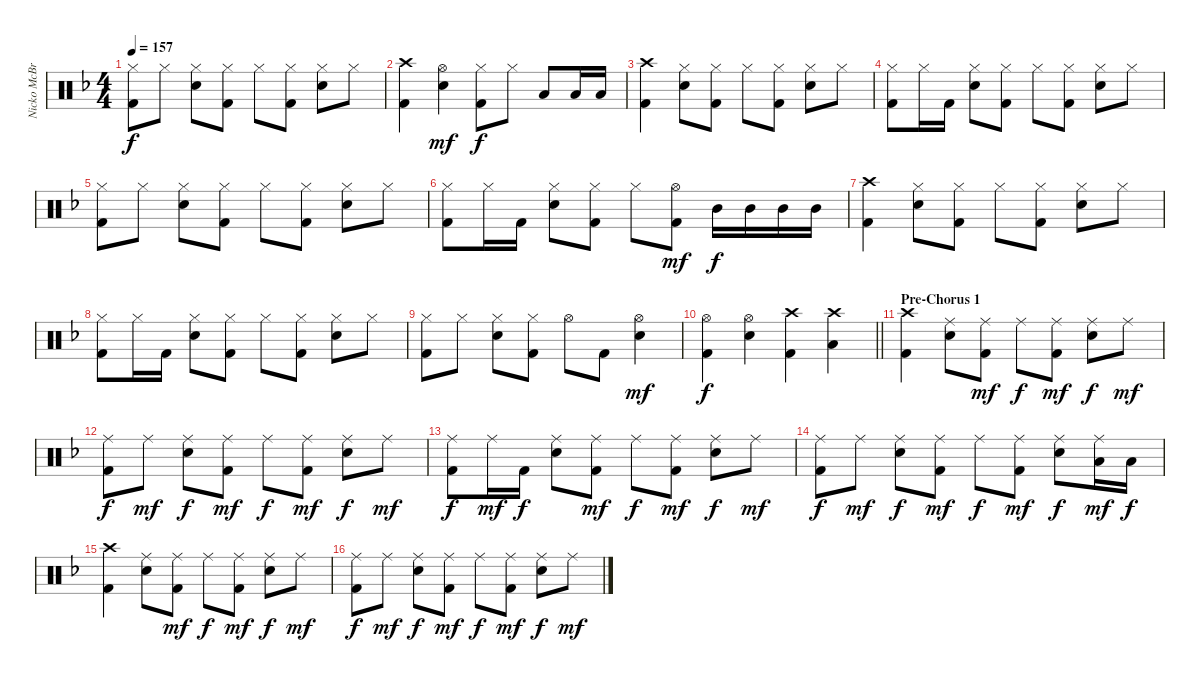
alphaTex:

\track ("Nicko McBrain" "Nicko McBr") {instrument percussion}
\staff {score}
\articulation defaults
\ts (4 4)
\tempo 157
\clef neutral
\ks f
("Hi-Hat (closed)" "Kick (hit) 2").8{dy f} "Hi-Hat (closed)".8 ("Hi-Hat (closed)" "Electric Snare (hit)").8 ("Hi-Hat (closed)" "Kick (hit) 2").8 "Hi-Hat (closed)".8 ("Hi-Hat (closed)" "Kick (hit) 2").8 ("Hi-Hat (closed)" "Electric Snare (hit)").8 "Hi-Hat (closed)".8 |
("Crash high (hit)" "Kick (hit) 2").4 ("Hi-Hat (open)" "Electric Snare (hit)").4{dy mf} ("Hi-Hat (closed)" "Kick (hit) 2").8{dy f} "Hi-Hat (closed)".8 "Low Tom (hit)".8 "Low Tom (hit)".16 "Low Tom (hit)".16 |
("Crash high (hit)" "Kick (hit) 2").4 ("Hi-Hat (closed)" "Electric Snare (hit)").8 ("Hi-Hat (closed)" "Kick (hit) 2").8 "Hi-Hat (closed)".8 ("Hi-Hat (closed)" "Kick (hit) 2").8 ("Hi-Hat (closed)" "Electric Snare (hit)").8 "Hi-Hat (closed)".8 |
("Hi-Hat (closed)" "Kick (hit) 2").8 "Hi-Hat (closed)".16 "Kick (hit) 2".16 ("Hi-Hat (closed)" "Electric Snare (hit)").8 ("Hi-Hat (closed)" "Kick (hit) 2").8 "Hi-Hat (closed)".8 ("Hi-Hat (closed)" "Kick (hit) 2").8 ("Hi-Hat (closed)" "Electric Snare (hit)").8 "Hi-Hat (closed)".8 |
("Hi-Hat (closed)" "Kick (hit) 2").8 "Hi-Hat (closed)".8 ("Hi-Hat (closed)" "Electric Snare (hit)").8 ("Hi-Hat (closed)" "Kick (hit) 2").8 "Hi-Hat (closed)".8 ("Hi-Hat (closed)" "Kick (hit) 2").8 ("Hi-Hat (closed)" "Electric Snare (hit)").8 "Hi-Hat (closed)".8 |
("Hi-Hat (closed)" "Kick (hit) 2").8 "Hi-Hat (closed)".16 "Kick (hit) 2".16 ("Hi-Hat (closed)" "Electric Snare (hit)").8 ("Hi-Hat (closed)" "Kick (hit) 2").8 "Hi-Hat (closed)".8 ("Hi-Hat (open)" "Kick (hit) 2").8{dy mf} "Mid Tom (hit)".16{dy f} "Mid Tom (hit)".16 "Mid Tom (hit)".16 "Mid Tom (hit)".16 |
("Crash high (hit)" "Kick (hit) 2").4 ("Hi-Hat (closed)" "Electric Snare (hit)").8 ("Hi-Hat (closed)" "Kick (hit) 2").8 "Hi-Hat (closed)".8 ("Hi-Hat (closed)" "Kick (hit) 2").8 ("Hi-Hat (closed)" "Electric Snare (hit)").8 "Hi-Hat (closed)".8 |
("Hi-Hat (closed)" "Kick (hit) 2").8 "Hi-Hat (closed)".16 "Kick (hit) 2".16 ("Hi-Hat (closed)" "Electric Snare (hit)").8 ("Hi-Hat (closed)" "Kick (hit) 2").8 "Hi-Hat (closed)".8 ("Hi-Hat (closed)" "Kick (hit) 2").8 ("Hi-Hat (closed)" "Electric Snare (hit)").8 "Hi-Hat (closed)".8 |
("Hi-Hat (closed)" "Kick (hit) 2").8 "Hi-Hat (closed)".8 ("Hi-Hat (closed)" "Electric Snare (hit)").8 ("Hi-Hat (closed)" "Kick (hit) 2").8 "Hi-Hat (open)".8 "Kick (hit) 2".8 ("Hi-Hat (open)" "Electric Snare (hit)").4{dy mf} |
\barLineRight lightlight
("Hi-Hat (open)" "Kick (hit) 2").4{dy f} ("Hi-Hat (open)" "Electric Snare (hit)").4 ("Crash high (hit)" "Kick (hit) 2").4 ("Crash high (hit)" "Low Tom (hit)").4 |
\section ("" "Pre-Chorus 1")
("Crash high (hit)" "Kick (hit) 2").4 ("Ride (middle)" "Electric Snare (hit)").8 ("Ride (middle)" "Kick (hit) 2").8{dy mf} "Ride (middle)".8{dy f} ("Ride (middle)" "Kick (hit) 2").8{dy mf} ("Ride (middle)" "Electric Snare (hit)").8{dy f} "Ride (middle)".8{dy mf} |
("Ride (middle)" "Kick (hit) 2").8{dy f} "Ride (middle)".8{dy mf} ("Ride (middle)" "Electric Snare (hit)").8{dy f} ("Ride (middle)" "Kick (hit) 2").8{dy mf} "Ride (middle)".8{dy f} ("Ride (middle)" "Kick (hit) 2").8{dy mf} ("Ride (middle)" "Electric Snare (hit)").8{dy f} "Ride (middle)".8{dy mf} |
("Ride (middle)" "Kick (hit) 2").8{dy f} "Ride (middle)".16{dy mf} "Kick (hit) 2".16{dy f} ("Ride (middle)" "Electric Snare (hit)").8 ("Ride (middle)" "Kick (hit) 2").8{dy mf} "Ride (middle)".8{dy f} ("Ride (middle)" "Kick (hit) 2").8{dy mf} ("Ride (middle)" "Electric Snare (hit)").8{dy f} "Ride (middle)".8{dy mf} |
("Ride (middle)" "Kick (hit) 2").8{dy f} "Ride (middle)".8{dy mf} ("Ride (middle)" "Electric Snare (hit)").8{dy f} ("Ride (middle)" "Kick (hit) 2").8{dy mf} "Ride (middle)".8{dy f} ("Ride (middle)" "Kick (hit) 2").8{dy mf} ("Ride (middle)" "Electric Snare (hit)").8{dy f} ("Ride (middle)" "Low Tom (hit)").16{dy mf} "Low Tom (hit)".16{dy f} |
("Crash high (hit)" "Kick (hit) 2").4 ("Ride (middle)" "Electric Snare (hit)").8 ("Ride (middle)" "Kick (hit) 2").8{dy mf} "Ride (middle)".8{dy f} ("Ride (middle)" "Kick (hit) 2").8{dy mf} ("Ride (middle)" "Electric Snare (hit)").8{dy f} "Ride (middle)".8{dy mf} |
("Ride (middle)" "Kick (hit) 2").8{dy f} "Ride (middle)".8{dy mf} ("Ride (middle)" "Electric Snare (hit)").8{dy f} ("Ride (middle)" "Kick (hit) 2").8{dy mf} "Ride (middle)".8{dy f} ("Ride (middle)" "Kick (hit) 2").8{dy mf} ("Ride (middle)" "Electric Snare (hit)").8{dy f} "Ride (middle)".8{dy mf}
